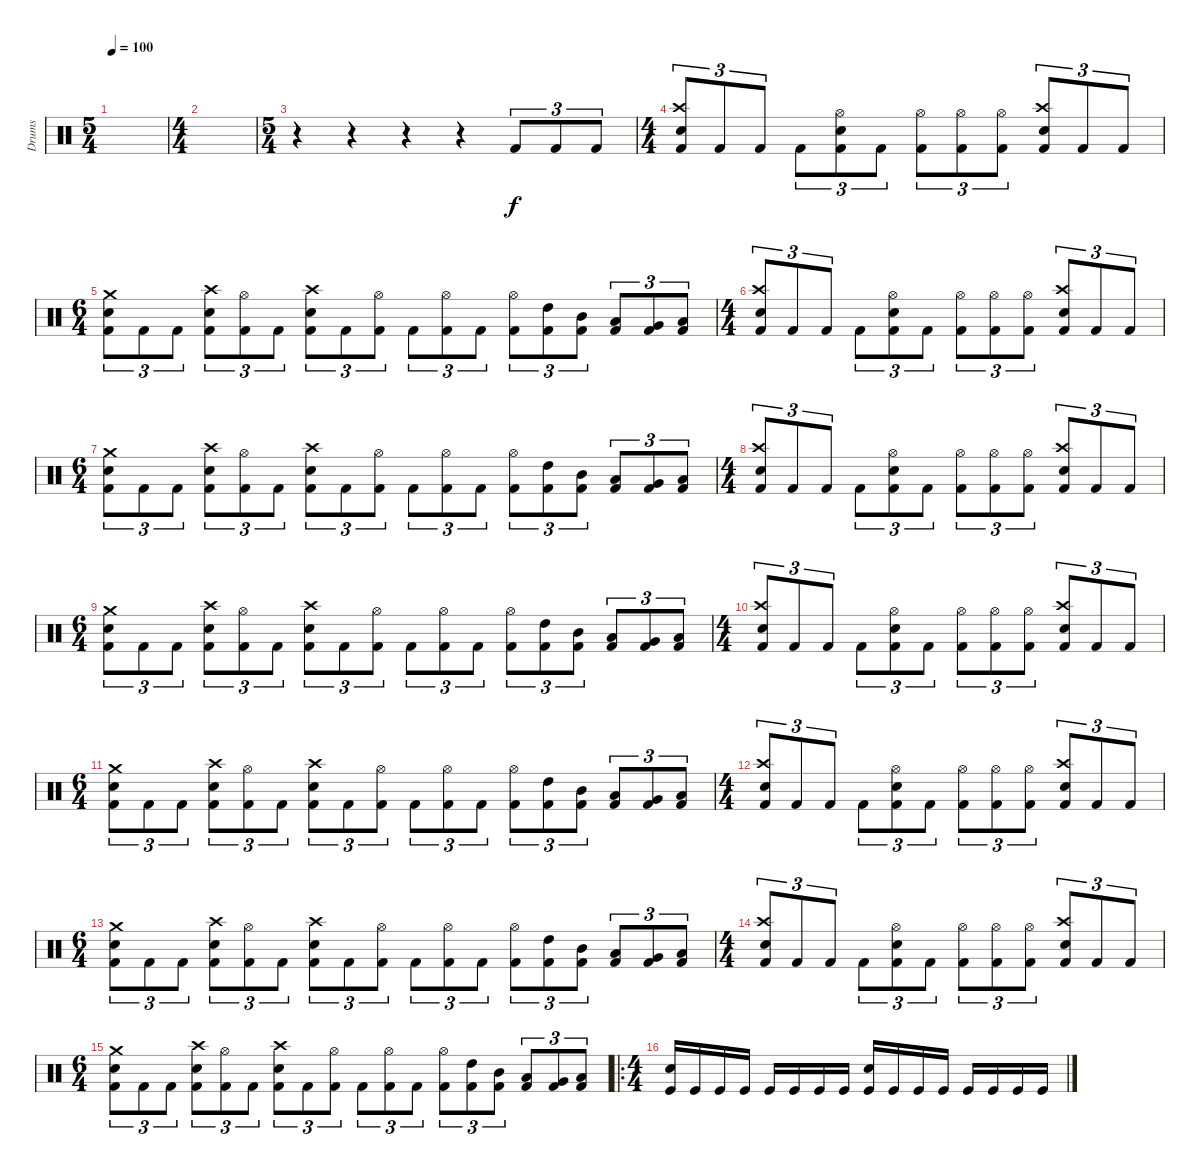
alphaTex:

\track ("Drums" "Drums") {instrument percussion}
\staff {score}
\articulation defaults
\ts (5 4)
\tempo 100
\clef neutral
\ks c
|
\ts (4 4)
|
\ts (5 4)
r.4 r.4 r.4 r.4 "Kick (hit) 2".8{tu (3 2)} "Kick (hit) 2".8{tu (3 2)} "Kick (hit) 2".8{tu (3 2)} |
\ts (4 4)
("Crash high (hit)" "Electric Snare (hit)" "Kick (hit) 2").8{tu (3 2)} "Kick (hit) 2".8{tu (3 2)} "Kick (hit) 2".8{tu (3 2)} "Kick (hit) 2".8{tu (3 2)} ("Hi-Hat (open)" "Electric Snare (hit)" "Kick (hit) 2").8{tu (3 2)} "Kick (hit) 2".8{tu (3 2)} ("Hi-Hat (open)" "Kick (hit) 2").8{tu (3 2)} ("Hi-Hat (open)" "Kick (hit) 2").8{tu (3 2)} ("Hi-Hat (open)" "Kick (hit) 2").8{tu (3 2)} ("Crash high (hit)" "Electric Snare (hit)" "Kick (hit) 2").8{tu (3 2)} "Kick (hit) 2".8{tu (3 2)} "Kick (hit) 2".8{tu (3 2)} |
\ts (6 4)
("Crash medium (hit)" "Electric Snare (hit)" "Kick (hit) 2").8{tu (3 2)} "Kick (hit) 2".8{tu (3 2)} "Kick (hit) 2".8{tu (3 2)} ("Crash high (hit)" "Electric Snare (hit)" "Kick (hit) 2").8{tu (3 2)} ("Hi-Hat (open)" "Kick (hit) 2").8{tu (3 2)} "Kick (hit) 2".8{tu (3 2)} ("Crash high (hit)" "Electric Snare (hit)" "Kick (hit) 2").8{tu (3 2)} "Kick (hit) 2".8{tu (3 2)} ("Hi-Hat (open)" "Kick (hit) 2").8{tu (3 2)} "Kick (hit) 2".8{tu (3 2)} ("Hi-Hat (open)" "Kick (hit) 2").8{tu (3 2)} "Kick (hit) 2".8{tu (3 2)} ("Hi-Hat (open)" "Kick (hit) 2").8{tu (3 2)} ("High Tom (hit)" "Kick (hit) 2").8{tu (3 2)} ("Mid Tom (hit)" "Kick (hit) 2").8{tu (3 2)} ("Low Tom (hit)" "Kick (hit) 2").8{tu (3 2)} ("Very Low Tom (hit)" "Kick (hit) 2").8{tu (3 2)} ("Low Floor Tom (hit)" "Kick (hit) 2").8{tu (3 2)} |
\ts (4 4)
("Crash high (hit)" "Electric Snare (hit)" "Kick (hit) 2").8{tu (3 2)} "Kick (hit) 2".8{tu (3 2)} "Kick (hit) 2".8{tu (3 2)} "Kick (hit) 2".8{tu (3 2)} ("Hi-Hat (open)" "Electric Snare (hit)" "Kick (hit) 2").8{tu (3 2)} "Kick (hit) 2".8{tu (3 2)} ("Hi-Hat (open)" "Kick (hit) 2").8{tu (3 2)} ("Hi-Hat (open)" "Kick (hit) 2").8{tu (3 2)} ("Hi-Hat (open)" "Kick (hit) 2").8{tu (3 2)} ("Crash high (hit)" "Electric Snare (hit)" "Kick (hit) 2").8{tu (3 2)} "Kick (hit) 2".8{tu (3 2)} "Kick (hit) 2".8{tu (3 2)} |
\ts (6 4)
("Crash medium (hit)" "Electric Snare (hit)" "Kick (hit) 2").8{tu (3 2)} "Kick (hit) 2".8{tu (3 2)} "Kick (hit) 2".8{tu (3 2)} ("Crash high (hit)" "Electric Snare (hit)" "Kick (hit) 2").8{tu (3 2)} ("Hi-Hat (open)" "Kick (hit) 2").8{tu (3 2)} "Kick (hit) 2".8{tu (3 2)} ("Crash high (hit)" "Electric Snare (hit)" "Kick (hit) 2").8{tu (3 2)} "Kick (hit) 2".8{tu (3 2)} ("Hi-Hat (open)" "Kick (hit) 2").8{tu (3 2)} "Kick (hit) 2".8{tu (3 2)} ("Hi-Hat (open)" "Kick (hit) 2").8{tu (3 2)} "Kick (hit) 2".8{tu (3 2)} ("Hi-Hat (open)" "Kick (hit) 2").8{tu (3 2)} ("High Tom (hit)" "Kick (hit) 2").8{tu (3 2)} ("Mid Tom (hit)" "Kick (hit) 2").8{tu (3 2)} ("Low Tom (hit)" "Kick (hit) 2").8{tu (3 2)} ("Very Low Tom (hit)" "Kick (hit) 2").8{tu (3 2)} ("Low Floor Tom (hit)" "Kick (hit) 2").8{tu (3 2)} |
\ts (4 4)
("Crash high (hit)" "Electric Snare (hit)" "Kick (hit) 2").8{tu (3 2)} "Kick (hit) 2".8{tu (3 2)} "Kick (hit) 2".8{tu (3 2)} "Kick (hit) 2".8{tu (3 2)} ("Hi-Hat (open)" "Electric Snare (hit)" "Kick (hit) 2").8{tu (3 2)} "Kick (hit) 2".8{tu (3 2)} ("Hi-Hat (open)" "Kick (hit) 2").8{tu (3 2)} ("Hi-Hat (open)" "Kick (hit) 2").8{tu (3 2)} ("Hi-Hat (open)" "Kick (hit) 2").8{tu (3 2)} ("Crash high (hit)" "Electric Snare (hit)" "Kick (hit) 2").8{tu (3 2)} "Kick (hit) 2".8{tu (3 2)} "Kick (hit) 2".8{tu (3 2)} |
\ts (6 4)
("Crash medium (hit)" "Electric Snare (hit)" "Kick (hit) 2").8{tu (3 2)} "Kick (hit) 2".8{tu (3 2)} "Kick (hit) 2".8{tu (3 2)} ("Crash high (hit)" "Electric Snare (hit)" "Kick (hit) 2").8{tu (3 2)} ("Hi-Hat (open)" "Kick (hit) 2").8{tu (3 2)} "Kick (hit) 2".8{tu (3 2)} ("Crash high (hit)" "Electric Snare (hit)" "Kick (hit) 2").8{tu (3 2)} "Kick (hit) 2".8{tu (3 2)} ("Hi-Hat (open)" "Kick (hit) 2").8{tu (3 2)} "Kick (hit) 2".8{tu (3 2)} ("Hi-Hat (open)" "Kick (hit) 2").8{tu (3 2)} "Kick (hit) 2".8{tu (3 2)} ("Hi-Hat (open)" "Kick (hit) 2").8{tu (3 2)} ("High Tom (hit)" "Kick (hit) 2").8{tu (3 2)} ("Mid Tom (hit)" "Kick (hit) 2").8{tu (3 2)} ("Low Tom (hit)" "Kick (hit) 2").8{tu (3 2)} ("Very Low Tom (hit)" "Kick (hit) 2").8{tu (3 2)} ("Low Floor Tom (hit)" "Kick (hit) 2").8{tu (3 2)} |
\ts (4 4)
("Crash high (hit)" "Electric Snare (hit)" "Kick (hit) 2").8{tu (3 2)} "Kick (hit) 2".8{tu (3 2)} "Kick (hit) 2".8{tu (3 2)} "Kick (hit) 2".8{tu (3 2)} ("Hi-Hat (open)" "Electric Snare (hit)" "Kick (hit) 2").8{tu (3 2)} "Kick (hit) 2".8{tu (3 2)} ("Hi-Hat (open)" "Kick (hit) 2").8{tu (3 2)} ("Hi-Hat (open)" "Kick (hit) 2").8{tu (3 2)} ("Hi-Hat (open)" "Kick (hit) 2").8{tu (3 2)} ("Crash high (hit)" "Electric Snare (hit)" "Kick (hit) 2").8{tu (3 2)} "Kick (hit) 2".8{tu (3 2)} "Kick (hit) 2".8{tu (3 2)} |
\ts (6 4)
("Crash medium (hit)" "Electric Snare (hit)" "Kick (hit) 2").8{tu (3 2)} "Kick (hit) 2".8{tu (3 2)} "Kick (hit) 2".8{tu (3 2)} ("Crash high (hit)" "Electric Snare (hit)" "Kick (hit) 2").8{tu (3 2)} ("Hi-Hat (open)" "Kick (hit) 2").8{tu (3 2)} "Kick (hit) 2".8{tu (3 2)} ("Crash high (hit)" "Electric Snare (hit)" "Kick (hit) 2").8{tu (3 2)} "Kick (hit) 2".8{tu (3 2)} ("Hi-Hat (open)" "Kick (hit) 2").8{tu (3 2)} "Kick (hit) 2".8{tu (3 2)} ("Hi-Hat (open)" "Kick (hit) 2").8{tu (3 2)} "Kick (hit) 2".8{tu (3 2)} ("Hi-Hat (open)" "Kick (hit) 2").8{tu (3 2)} ("High Tom (hit)" "Kick (hit) 2").8{tu (3 2)} ("Mid Tom (hit)" "Kick (hit) 2").8{tu (3 2)} ("Low Tom (hit)" "Kick (hit) 2").8{tu (3 2)} ("Very Low Tom (hit)" "Kick (hit) 2").8{tu (3 2)} ("Low Floor Tom (hit)" "Kick (hit) 2").8{tu (3 2)} |
\ts (4 4)
("Crash high (hit)" "Electric Snare (hit)" "Kick (hit) 2").8{tu (3 2)} "Kick (hit) 2".8{tu (3 2)} "Kick (hit) 2".8{tu (3 2)} "Kick (hit) 2".8{tu (3 2)} ("Hi-Hat (open)" "Electric Snare (hit)" "Kick (hit) 2").8{tu (3 2)} "Kick (hit) 2".8{tu (3 2)} ("Hi-Hat (open)" "Kick (hit) 2").8{tu (3 2)} ("Hi-Hat (open)" "Kick (hit) 2").8{tu (3 2)} ("Hi-Hat (open)" "Kick (hit) 2").8{tu (3 2)} ("Crash high (hit)" "Electric Snare (hit)" "Kick (hit) 2").8{tu (3 2)} "Kick (hit) 2".8{tu (3 2)} "Kick (hit) 2".8{tu (3 2)} |
\ts (6 4)
("Crash medium (hit)" "Electric Snare (hit)" "Kick (hit) 2").8{tu (3 2)} "Kick (hit) 2".8{tu (3 2)} "Kick (hit) 2".8{tu (3 2)} ("Crash high (hit)" "Electric Snare (hit)" "Kick (hit) 2").8{tu (3 2)} ("Hi-Hat (open)" "Kick (hit) 2").8{tu (3 2)} "Kick (hit) 2".8{tu (3 2)} ("Crash high (hit)" "Electric Snare (hit)" "Kick (hit) 2").8{tu (3 2)} "Kick (hit) 2".8{tu (3 2)} ("Hi-Hat (open)" "Kick (hit) 2").8{tu (3 2)} "Kick (hit) 2".8{tu (3 2)} ("Hi-Hat (open)" "Kick (hit) 2").8{tu (3 2)} "Kick (hit) 2".8{tu (3 2)} ("Hi-Hat (open)" "Kick (hit) 2").8{tu (3 2)} ("High Tom (hit)" "Kick (hit) 2").8{tu (3 2)} ("Mid Tom (hit)" "Kick (hit) 2").8{tu (3 2)} ("Low Tom (hit)" "Kick (hit) 2").8{tu (3 2)} ("Very Low Tom (hit)" "Kick (hit) 2").8{tu (3 2)} ("Low Floor Tom (hit)" "Kick (hit) 2").8{tu (3 2)} |
\ts (4 4)
("Crash high (hit)" "Electric Snare (hit)" "Kick (hit) 2").8{tu (3 2)} "Kick (hit) 2".8{tu (3 2)} "Kick (hit) 2".8{tu (3 2)} "Kick (hit) 2".8{tu (3 2)} ("Hi-Hat (open)" "Electric Snare (hit)" "Kick (hit) 2").8{tu (3 2)} "Kick (hit) 2".8{tu (3 2)} ("Hi-Hat (open)" "Kick (hit) 2").8{tu (3 2)} ("Hi-Hat (open)" "Kick (hit) 2").8{tu (3 2)} ("Hi-Hat (open)" "Kick (hit) 2").8{tu (3 2)} ("Crash high (hit)" "Electric Snare (hit)" "Kick (hit) 2").8{tu (3 2)} "Kick (hit) 2".8{tu (3 2)} "Kick (hit) 2".8{tu (3 2)} |
\ts (6 4)
("Crash medium (hit)" "Electric Snare (hit)" "Kick (hit) 2").8{tu (3 2)} "Kick (hit) 2".8{tu (3 2)} "Kick (hit) 2".8{tu (3 2)} ("Crash high (hit)" "Electric Snare (hit)" "Kick (hit) 2").8{tu (3 2)} ("Hi-Hat (open)" "Kick (hit) 2").8{tu (3 2)} "Kick (hit) 2".8{tu (3 2)} ("Crash high (hit)" "Electric Snare (hit)" "Kick (hit) 2").8{tu (3 2)} "Kick (hit) 2".8{tu (3 2)} ("Hi-Hat (open)" "Kick (hit) 2").8{tu (3 2)} "Kick (hit) 2".8{tu (3 2)} ("Hi-Hat (open)" "Kick (hit) 2").8{tu (3 2)} "Kick (hit) 2".8{tu (3 2)} ("Hi-Hat (open)" "Kick (hit) 2").8{tu (3 2)} ("High Tom (hit)" "Kick (hit) 2").8{tu (3 2)} ("Mid Tom (hit)" "Kick (hit) 2").8{tu (3 2)} ("Low Tom (hit)" "Kick (hit) 2").8{tu (3 2)} ("Very Low Tom (hit)" "Kick (hit) 2").8{tu (3 2)} ("Low Floor Tom (hit)" "Kick (hit) 2").8{tu (3 2)} |
\ro
\ts (4 4)
("Electric Snare (hit)" "Kick (hit)").16 "Kick (hit)".16 "Kick (hit)".16 "Kick (hit)".16 "Kick (hit)".16 "Kick (hit)".16 "Kick (hit)".16 "Kick (hit)".16 ("Electric Snare (hit)" "Kick (hit)").16 "Kick (hit)".16 "Kick (hit)".16 "Kick (hit)".16 "Kick (hit)".16 "Kick (hit)".16 "Kick (hit)".16 "Kick (hit)".16
